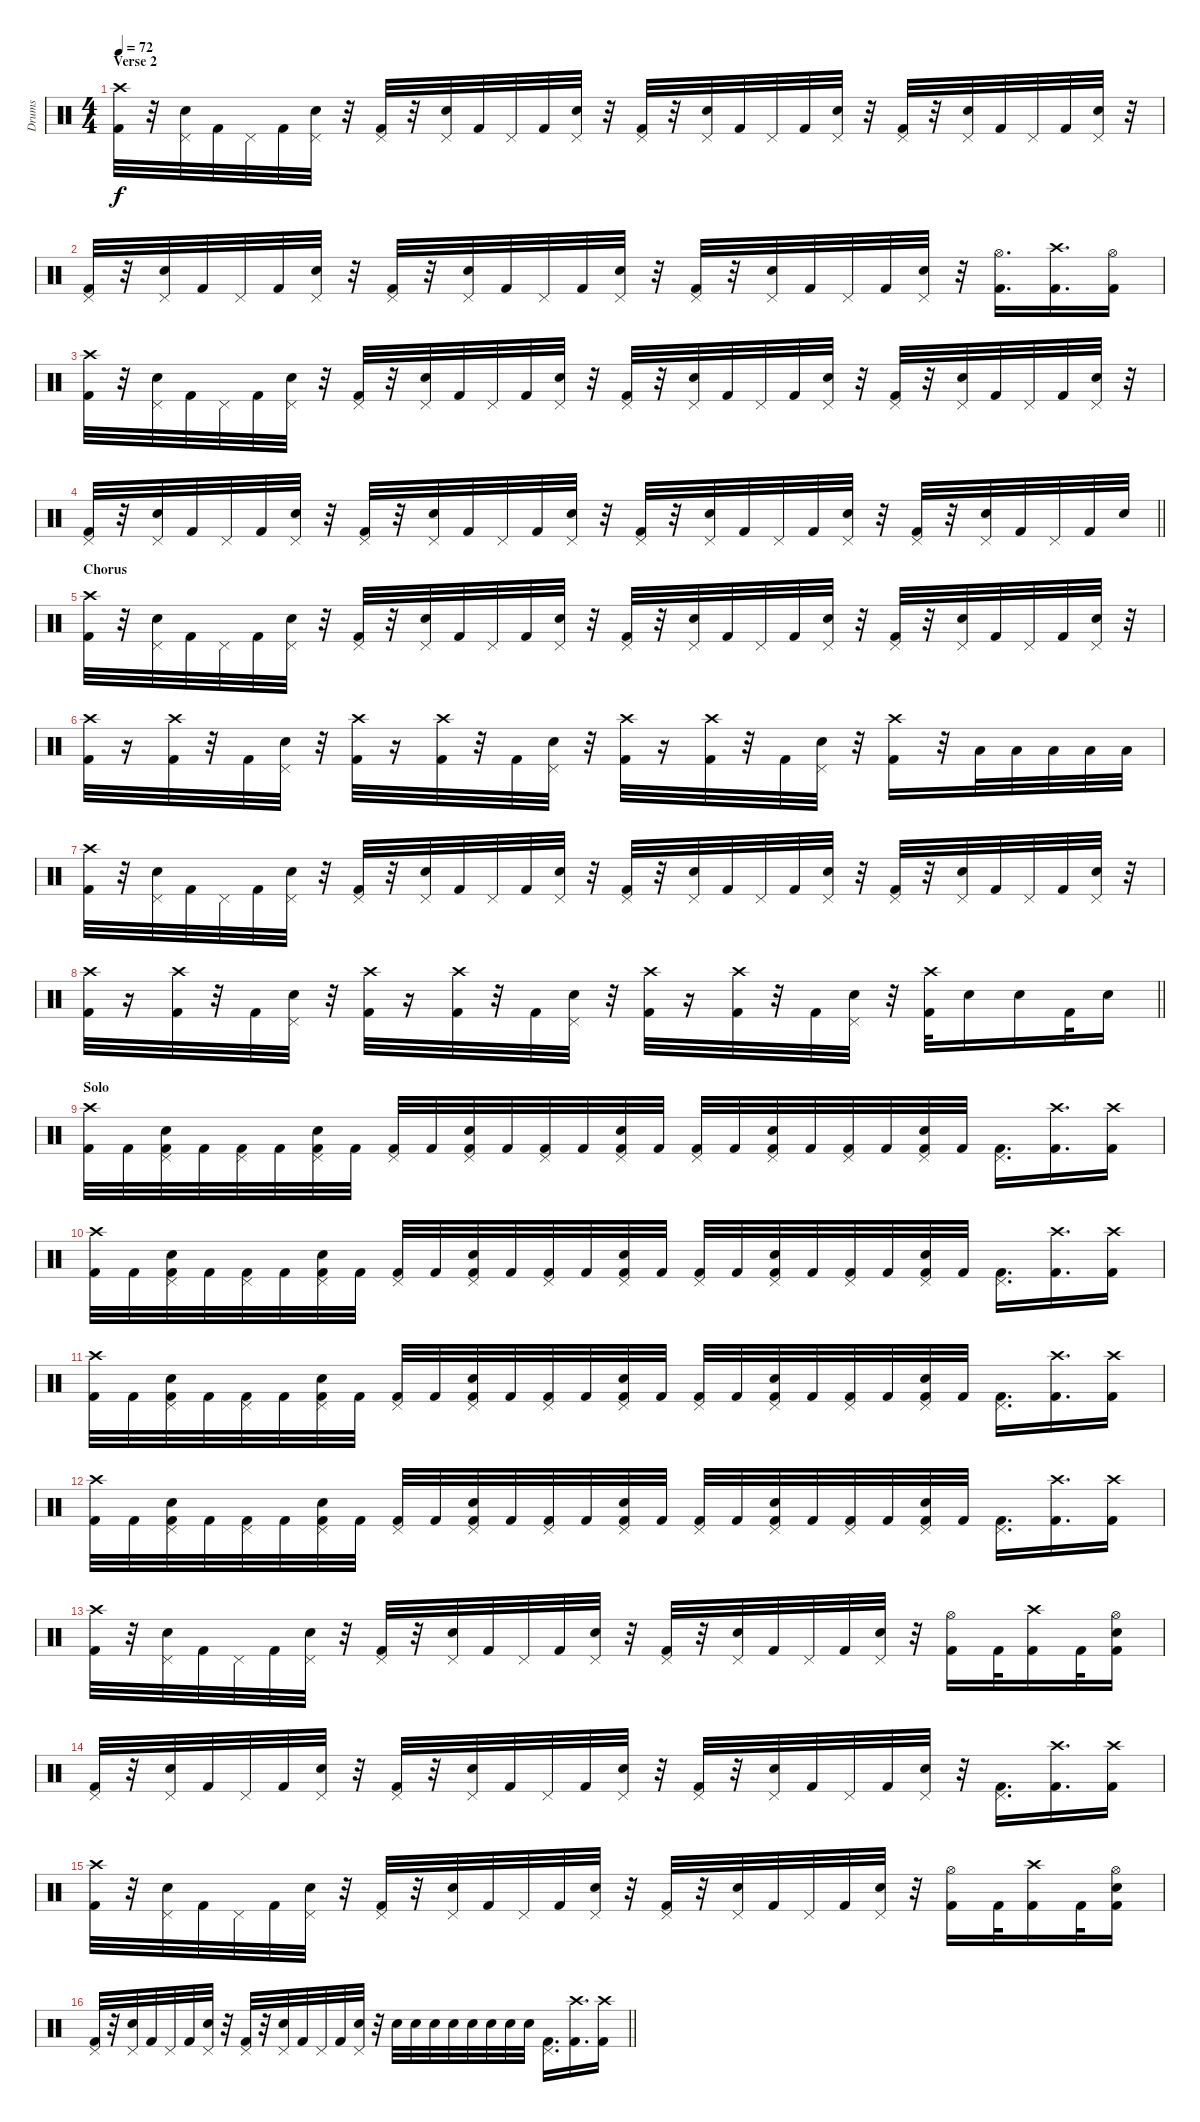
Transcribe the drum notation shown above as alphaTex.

\track ("Drums" "Drums") {instrument percussion}
\staff {score}
\articulation defaults
\ts (4 4)
\section ("" "Verse 2")
\tempo 72
\clef neutral
\ks c
("Crash high (hit)" "Kick (hit) 2").32{dy f} r.32 ("Pedal Hi-Hat (hit)" "Snare (hit) 2").32 "Kick (hit) 2".32 "Pedal Hi-Hat (hit)".32 "Kick (hit) 2".32 ("Pedal Hi-Hat (hit)" "Snare (hit) 2").32 r.32 ("Pedal Hi-Hat (hit)" "Kick (hit) 2").32 r.32 ("Pedal Hi-Hat (hit)" "Snare (hit) 2").32 "Kick (hit) 2".32 "Pedal Hi-Hat (hit)".32 "Kick (hit) 2".32 ("Pedal Hi-Hat (hit)" "Snare (hit) 2").32 r.32 ("Pedal Hi-Hat (hit)" "Kick (hit) 2").32 r.32 ("Pedal Hi-Hat (hit)" "Snare (hit) 2").32 "Kick (hit) 2".32 "Pedal Hi-Hat (hit)".32 "Kick (hit) 2".32 ("Pedal Hi-Hat (hit)" "Snare (hit) 2").32 r.32 ("Pedal Hi-Hat (hit)" "Kick (hit) 2").32 r.32 ("Pedal Hi-Hat (hit)" "Snare (hit) 2").32 "Kick (hit) 2".32 "Pedal Hi-Hat (hit)".32 "Kick (hit) 2".32 ("Pedal Hi-Hat (hit)" "Snare (hit) 2").32 r.32 |
("Pedal Hi-Hat (hit)" "Kick (hit) 2").32 r.32 ("Pedal Hi-Hat (hit)" "Snare (hit) 2").32 "Kick (hit) 2".32 "Pedal Hi-Hat (hit)".32 "Kick (hit) 2".32 ("Pedal Hi-Hat (hit)" "Snare (hit) 2").32 r.32 ("Pedal Hi-Hat (hit)" "Kick (hit) 2").32 r.32 ("Pedal Hi-Hat (hit)" "Snare (hit) 2").32 "Kick (hit) 2".32 "Pedal Hi-Hat (hit)".32 "Kick (hit) 2".32 ("Pedal Hi-Hat (hit)" "Snare (hit) 2").32 r.32 ("Pedal Hi-Hat (hit)" "Kick (hit) 2").32 r.32 ("Pedal Hi-Hat (hit)" "Snare (hit) 2").32 "Kick (hit) 2".32 "Pedal Hi-Hat (hit)".32 "Kick (hit) 2".32 ("Pedal Hi-Hat (hit)" "Snare (hit) 2").32 r.32 ("Hi-Hat (open)" "Kick (hit) 2").16{d} ("Crash high (hit)" "Kick (hit) 2").16{d} ("Hi-Hat (open)" "Kick (hit) 2").16 |
("Crash high (hit)" "Kick (hit) 2").32 r.32 ("Pedal Hi-Hat (hit)" "Snare (hit) 2").32 "Kick (hit) 2".32 "Pedal Hi-Hat (hit)".32 "Kick (hit) 2".32 ("Pedal Hi-Hat (hit)" "Snare (hit) 2").32 r.32 ("Pedal Hi-Hat (hit)" "Kick (hit) 2").32 r.32 ("Pedal Hi-Hat (hit)" "Snare (hit) 2").32 "Kick (hit) 2".32 "Pedal Hi-Hat (hit)".32 "Kick (hit) 2".32 ("Pedal Hi-Hat (hit)" "Snare (hit) 2").32 r.32 ("Pedal Hi-Hat (hit)" "Kick (hit) 2").32 r.32 ("Pedal Hi-Hat (hit)" "Snare (hit) 2").32 "Kick (hit) 2".32 "Pedal Hi-Hat (hit)".32 "Kick (hit) 2".32 ("Pedal Hi-Hat (hit)" "Snare (hit) 2").32 r.32 ("Pedal Hi-Hat (hit)" "Kick (hit) 2").32 r.32 ("Pedal Hi-Hat (hit)" "Snare (hit) 2").32 "Kick (hit) 2".32 "Pedal Hi-Hat (hit)".32 "Kick (hit) 2".32 ("Pedal Hi-Hat (hit)" "Snare (hit) 2").32 r.32 |
\barLineRight lightlight
("Pedal Hi-Hat (hit)" "Kick (hit) 2").32 r.32 ("Pedal Hi-Hat (hit)" "Snare (hit) 2").32 "Kick (hit) 2".32 "Pedal Hi-Hat (hit)".32 "Kick (hit) 2".32 ("Pedal Hi-Hat (hit)" "Snare (hit) 2").32 r.32 ("Pedal Hi-Hat (hit)" "Kick (hit) 2").32 r.32 ("Pedal Hi-Hat (hit)" "Snare (hit) 2").32 "Kick (hit) 2".32 "Pedal Hi-Hat (hit)".32 "Kick (hit) 2".32 ("Pedal Hi-Hat (hit)" "Snare (hit) 2").32 r.32 ("Pedal Hi-Hat (hit)" "Kick (hit) 2").32 r.32 ("Pedal Hi-Hat (hit)" "Snare (hit) 2").32 "Kick (hit) 2".32 "Pedal Hi-Hat (hit)".32 "Kick (hit) 2".32 ("Pedal Hi-Hat (hit)" "Snare (hit) 2").32 r.32 ("Pedal Hi-Hat (hit)" "Kick (hit) 2").32 r.32 ("Pedal Hi-Hat (hit)" "Snare (hit) 2").32 "Kick (hit) 2".32 "Pedal Hi-Hat (hit)".32 "Kick (hit) 2".32 "Snare (hit) 2".32 |
\section ("" "Chorus")
("Crash high (hit)" "Kick (hit) 2").32 r.32 ("Pedal Hi-Hat (hit)" "Snare (hit) 2").32 "Kick (hit) 2".32 "Pedal Hi-Hat (hit)".32 "Kick (hit) 2".32 ("Pedal Hi-Hat (hit)" "Snare (hit) 2").32 r.32 ("Pedal Hi-Hat (hit)" "Kick (hit) 2").32 r.32 ("Pedal Hi-Hat (hit)" "Snare (hit) 2").32 "Kick (hit) 2".32 "Pedal Hi-Hat (hit)".32 "Kick (hit) 2".32 ("Pedal Hi-Hat (hit)" "Snare (hit) 2").32 r.32 ("Pedal Hi-Hat (hit)" "Kick (hit) 2").32 r.32 ("Pedal Hi-Hat (hit)" "Snare (hit) 2").32 "Kick (hit) 2".32 "Pedal Hi-Hat (hit)".32 "Kick (hit) 2".32 ("Pedal Hi-Hat (hit)" "Snare (hit) 2").32 r.32 ("Pedal Hi-Hat (hit)" "Kick (hit) 2").32 r.32 ("Pedal Hi-Hat (hit)" "Snare (hit) 2").32 "Kick (hit) 2".32 "Pedal Hi-Hat (hit)".32 "Kick (hit) 2".32 ("Pedal Hi-Hat (hit)" "Snare (hit) 2").32 r.32 |
("Crash high (hit)" "Kick (hit) 2").32 r.16 ("Crash high (hit)" "Kick (hit) 2").32 r.32 "Kick (hit) 2".32 ("Pedal Hi-Hat (hit)" "Snare (hit) 2").32 r.32 ("Crash high (hit)" "Kick (hit) 2").32 r.16 ("Crash high (hit)" "Kick (hit) 2").32 r.32 "Kick (hit) 2".32 ("Pedal Hi-Hat (hit)" "Snare (hit) 2").32 r.32 ("Crash high (hit)" "Kick (hit) 2").32 r.16 ("Crash high (hit)" "Kick (hit) 2").32 r.32 "Kick (hit) 2".32 ("Pedal Hi-Hat (hit)" "Snare (hit) 2").32 r.32 ("Crash high (hit)" "Kick (hit) 2").16 r.32 "Low Tom (hit)".32 "Low Tom (hit)".32 "Low Tom (hit)".32 "Low Tom (hit)".32 "Low Tom (hit)".32 |
("Crash high (hit)" "Kick (hit) 2").32 r.32 ("Pedal Hi-Hat (hit)" "Snare (hit) 2").32 "Kick (hit) 2".32 "Pedal Hi-Hat (hit)".32 "Kick (hit) 2".32 ("Pedal Hi-Hat (hit)" "Snare (hit) 2").32 r.32 ("Pedal Hi-Hat (hit)" "Kick (hit) 2").32 r.32 ("Pedal Hi-Hat (hit)" "Snare (hit) 2").32 "Kick (hit) 2".32 "Pedal Hi-Hat (hit)".32 "Kick (hit) 2".32 ("Pedal Hi-Hat (hit)" "Snare (hit) 2").32 r.32 ("Pedal Hi-Hat (hit)" "Kick (hit) 2").32 r.32 ("Pedal Hi-Hat (hit)" "Snare (hit) 2").32 "Kick (hit) 2".32 "Pedal Hi-Hat (hit)".32 "Kick (hit) 2".32 ("Pedal Hi-Hat (hit)" "Snare (hit) 2").32 r.32 ("Pedal Hi-Hat (hit)" "Kick (hit) 2").32 r.32 ("Pedal Hi-Hat (hit)" "Snare (hit) 2").32 "Kick (hit) 2".32 "Pedal Hi-Hat (hit)".32 "Kick (hit) 2".32 ("Pedal Hi-Hat (hit)" "Snare (hit) 2").32 r.32 |
\barLineRight lightlight
("Crash high (hit)" "Kick (hit) 2").32 r.16 ("Crash high (hit)" "Kick (hit) 2").32 r.32 "Kick (hit) 2".32 ("Pedal Hi-Hat (hit)" "Snare (hit) 2").32 r.32 ("Crash high (hit)" "Kick (hit) 2").32 r.16 ("Crash high (hit)" "Kick (hit) 2").32 r.32 "Kick (hit) 2".32 ("Pedal Hi-Hat (hit)" "Snare (hit) 2").32 r.32 ("Crash high (hit)" "Kick (hit) 2").32 r.16 ("Crash high (hit)" "Kick (hit) 2").32 r.32 "Kick (hit) 2".32 ("Pedal Hi-Hat (hit)" "Snare (hit) 2").32 r.32 ("Crash high (hit)" "Kick (hit) 2").32 "Snare (hit) 2".16 "Snare (hit) 2".16 "Kick (hit) 2".32 "Snare (hit) 2".16 |
\section ("" "Solo")
("Crash high (hit)" "Kick (hit) 2").32 "Kick (hit) 2".32 ("Pedal Hi-Hat (hit)" "Snare (hit) 2" "Kick (hit) 2").32 "Kick (hit) 2".32 ("Pedal Hi-Hat (hit)" "Kick (hit) 2").32 "Kick (hit) 2".32 ("Pedal Hi-Hat (hit)" "Snare (hit) 2" "Kick (hit) 2").32 "Kick (hit) 2".32 ("Pedal Hi-Hat (hit)" "Kick (hit) 2").32 "Kick (hit) 2".32 ("Pedal Hi-Hat (hit)" "Snare (hit) 2" "Kick (hit) 2").32 "Kick (hit) 2".32 ("Pedal Hi-Hat (hit)" "Kick (hit) 2").32 "Kick (hit) 2".32 ("Pedal Hi-Hat (hit)" "Snare (hit) 2" "Kick (hit) 2").32 "Kick (hit) 2".32 ("Pedal Hi-Hat (hit)" "Kick (hit) 2").32 "Kick (hit) 2".32 ("Pedal Hi-Hat (hit)" "Snare (hit) 2" "Kick (hit) 2").32 "Kick (hit) 2".32 ("Pedal Hi-Hat (hit)" "Kick (hit) 2").32 "Kick (hit) 2".32 ("Pedal Hi-Hat (hit)" "Snare (hit) 2" "Kick (hit) 2").32 "Kick (hit) 2".32 ("Pedal Hi-Hat (hit)" "Kick (hit) 2").16{d} ("Crash high (hit)" "Kick (hit) 2").16{d} ("Crash high (hit)" "Kick (hit) 2").16 |
("Crash high (hit)" "Kick (hit) 2").32 "Kick (hit) 2".32 ("Pedal Hi-Hat (hit)" "Snare (hit) 2" "Kick (hit) 2").32 "Kick (hit) 2".32 ("Pedal Hi-Hat (hit)" "Kick (hit) 2").32 "Kick (hit) 2".32 ("Pedal Hi-Hat (hit)" "Snare (hit) 2" "Kick (hit) 2").32 "Kick (hit) 2".32 ("Pedal Hi-Hat (hit)" "Kick (hit) 2").32 "Kick (hit) 2".32 ("Pedal Hi-Hat (hit)" "Snare (hit) 2" "Kick (hit) 2").32 "Kick (hit) 2".32 ("Pedal Hi-Hat (hit)" "Kick (hit) 2").32 "Kick (hit) 2".32 ("Pedal Hi-Hat (hit)" "Snare (hit) 2" "Kick (hit) 2").32 "Kick (hit) 2".32 ("Pedal Hi-Hat (hit)" "Kick (hit) 2").32 "Kick (hit) 2".32 ("Pedal Hi-Hat (hit)" "Snare (hit) 2" "Kick (hit) 2").32 "Kick (hit) 2".32 ("Pedal Hi-Hat (hit)" "Kick (hit) 2").32 "Kick (hit) 2".32 ("Pedal Hi-Hat (hit)" "Snare (hit) 2" "Kick (hit) 2").32 "Kick (hit) 2".32 ("Pedal Hi-Hat (hit)" "Kick (hit) 2").16{d} ("Crash high (hit)" "Kick (hit) 2").16{d} ("Crash high (hit)" "Kick (hit) 2").16 |
("Crash high (hit)" "Kick (hit) 2").32 "Kick (hit) 2".32 ("Pedal Hi-Hat (hit)" "Snare (hit) 2" "Kick (hit) 2").32 "Kick (hit) 2".32 ("Pedal Hi-Hat (hit)" "Kick (hit) 2").32 "Kick (hit) 2".32 ("Pedal Hi-Hat (hit)" "Snare (hit) 2" "Kick (hit) 2").32 "Kick (hit) 2".32 ("Pedal Hi-Hat (hit)" "Kick (hit) 2").32 "Kick (hit) 2".32 ("Pedal Hi-Hat (hit)" "Snare (hit) 2" "Kick (hit) 2").32 "Kick (hit) 2".32 ("Pedal Hi-Hat (hit)" "Kick (hit) 2").32 "Kick (hit) 2".32 ("Pedal Hi-Hat (hit)" "Snare (hit) 2" "Kick (hit) 2").32 "Kick (hit) 2".32 ("Pedal Hi-Hat (hit)" "Kick (hit) 2").32 "Kick (hit) 2".32 ("Pedal Hi-Hat (hit)" "Snare (hit) 2" "Kick (hit) 2").32 "Kick (hit) 2".32 ("Pedal Hi-Hat (hit)" "Kick (hit) 2").32 "Kick (hit) 2".32 ("Pedal Hi-Hat (hit)" "Snare (hit) 2" "Kick (hit) 2").32 "Kick (hit) 2".32 ("Pedal Hi-Hat (hit)" "Kick (hit) 2").16{d} ("Crash high (hit)" "Kick (hit) 2").16{d} ("Crash high (hit)" "Kick (hit) 2").16 |
("Crash high (hit)" "Kick (hit) 2").32 "Kick (hit) 2".32 ("Pedal Hi-Hat (hit)" "Snare (hit) 2" "Kick (hit) 2").32 "Kick (hit) 2".32 ("Pedal Hi-Hat (hit)" "Kick (hit) 2").32 "Kick (hit) 2".32 ("Pedal Hi-Hat (hit)" "Snare (hit) 2" "Kick (hit) 2").32 "Kick (hit) 2".32 ("Pedal Hi-Hat (hit)" "Kick (hit) 2").32 "Kick (hit) 2".32 ("Pedal Hi-Hat (hit)" "Snare (hit) 2" "Kick (hit) 2").32 "Kick (hit) 2".32 ("Pedal Hi-Hat (hit)" "Kick (hit) 2").32 "Kick (hit) 2".32 ("Pedal Hi-Hat (hit)" "Snare (hit) 2" "Kick (hit) 2").32 "Kick (hit) 2".32 ("Pedal Hi-Hat (hit)" "Kick (hit) 2").32 "Kick (hit) 2".32 ("Pedal Hi-Hat (hit)" "Snare (hit) 2" "Kick (hit) 2").32 "Kick (hit) 2".32 ("Pedal Hi-Hat (hit)" "Kick (hit) 2").32 "Kick (hit) 2".32 ("Pedal Hi-Hat (hit)" "Snare (hit) 2" "Kick (hit) 2").32 "Kick (hit) 2".32 ("Pedal Hi-Hat (hit)" "Kick (hit) 2").16{d} ("Crash high (hit)" "Kick (hit) 2").16{d} ("Crash high (hit)" "Kick (hit) 2").16 |
("Crash high (hit)" "Kick (hit) 2").32 r.32 ("Pedal Hi-Hat (hit)" "Snare (hit) 2").32 "Kick (hit) 2".32 "Pedal Hi-Hat (hit)".32 "Kick (hit) 2".32 ("Pedal Hi-Hat (hit)" "Snare (hit) 2").32 r.32 ("Pedal Hi-Hat (hit)" "Kick (hit) 2").32 r.32 ("Pedal Hi-Hat (hit)" "Snare (hit) 2").32 "Kick (hit) 2".32 "Pedal Hi-Hat (hit)".32 "Kick (hit) 2".32 ("Pedal Hi-Hat (hit)" "Snare (hit) 2").32 r.32 ("Pedal Hi-Hat (hit)" "Kick (hit) 2").32 r.32 ("Pedal Hi-Hat (hit)" "Snare (hit) 2").32 "Kick (hit) 2".32 "Pedal Hi-Hat (hit)".32 "Kick (hit) 2".32 ("Pedal Hi-Hat (hit)" "Snare (hit) 2").32 r.32 ("Hi-Hat (open)" "Kick (hit) 2").16 "Kick (hit) 2".32 ("Crash high (hit)" "Kick (hit) 2").16 "Kick (hit) 2".32 ("Hi-Hat (open)" "Snare (hit) 2" "Kick (hit) 2").16 |
("Pedal Hi-Hat (hit)" "Kick (hit) 2").32 r.32 ("Pedal Hi-Hat (hit)" "Snare (hit) 2").32 "Kick (hit) 2".32 "Pedal Hi-Hat (hit)".32 "Kick (hit) 2".32 ("Pedal Hi-Hat (hit)" "Snare (hit) 2").32 r.32 ("Pedal Hi-Hat (hit)" "Kick (hit) 2").32 r.32 ("Pedal Hi-Hat (hit)" "Snare (hit) 2").32 "Kick (hit) 2".32 "Pedal Hi-Hat (hit)".32 "Kick (hit) 2".32 ("Pedal Hi-Hat (hit)" "Snare (hit) 2").32 r.32 ("Pedal Hi-Hat (hit)" "Kick (hit) 2").32 r.32 ("Pedal Hi-Hat (hit)" "Snare (hit) 2").32 "Kick (hit) 2".32 "Pedal Hi-Hat (hit)".32 "Kick (hit) 2".32 ("Pedal Hi-Hat (hit)" "Snare (hit) 2").32 r.32 ("Pedal Hi-Hat (hit)" "Kick (hit) 2").16{d} ("Crash high (hit)" "Kick (hit) 2").16{d} ("Crash high (hit)" "Kick (hit) 2").16 |
("Crash high (hit)" "Kick (hit) 2").32 r.32 ("Pedal Hi-Hat (hit)" "Snare (hit) 2").32 "Kick (hit) 2".32 "Pedal Hi-Hat (hit)".32 "Kick (hit) 2".32 ("Pedal Hi-Hat (hit)" "Snare (hit) 2").32 r.32 ("Pedal Hi-Hat (hit)" "Kick (hit) 2").32 r.32 ("Pedal Hi-Hat (hit)" "Snare (hit) 2").32 "Kick (hit) 2".32 "Pedal Hi-Hat (hit)".32 "Kick (hit) 2".32 ("Pedal Hi-Hat (hit)" "Snare (hit) 2").32 r.32 ("Pedal Hi-Hat (hit)" "Kick (hit) 2").32 r.32 ("Pedal Hi-Hat (hit)" "Snare (hit) 2").32 "Kick (hit) 2".32 "Pedal Hi-Hat (hit)".32 "Kick (hit) 2".32 ("Pedal Hi-Hat (hit)" "Snare (hit) 2").32 r.32 ("Hi-Hat (open)" "Kick (hit) 2").16 "Kick (hit) 2".32 ("Crash high (hit)" "Kick (hit) 2").16 "Kick (hit) 2".32 ("Hi-Hat (open)" "Snare (hit) 2" "Kick (hit) 2").16 |
\barLineRight lightlight
("Pedal Hi-Hat (hit)" "Kick (hit) 2").32 r.32 ("Pedal Hi-Hat (hit)" "Snare (hit) 2").32 "Kick (hit) 2".32 "Pedal Hi-Hat (hit)".32 "Kick (hit) 2".32 ("Pedal Hi-Hat (hit)" "Snare (hit) 2").32 r.32 ("Pedal Hi-Hat (hit)" "Kick (hit) 2").32 r.32 ("Pedal Hi-Hat (hit)" "Snare (hit) 2").32 "Kick (hit) 2".32 "Pedal Hi-Hat (hit)".32 "Kick (hit) 2".32 ("Pedal Hi-Hat (hit)" "Snare (hit) 2").32 r.32 "Snare (hit) 2".32 "Snare (hit) 2".32 "Snare (hit) 2".32 "Snare (hit) 2".32 "Snare (hit) 2".32 "Snare (hit) 2".32 "Snare (hit) 2".32 "Snare (hit) 2".32 ("Pedal Hi-Hat (hit)" "Kick (hit) 2").16{d} ("Crash high (hit)" "Kick (hit) 2").16{d} ("Crash high (hit)" "Kick (hit) 2").16
